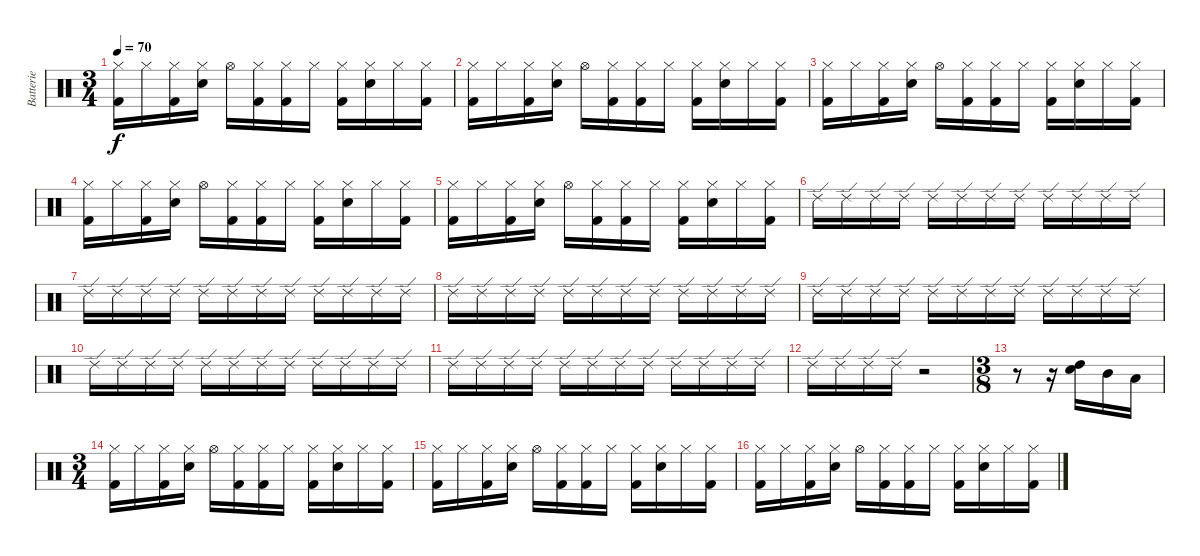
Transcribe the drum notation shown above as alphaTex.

\track ("Batterie" "Batterie") {instrument percussion}
\staff {score}
\articulation defaults
\ts (3 4)
\tempo 70
\clef neutral
\ks c
("Kick (hit) 2" "Hi-Hat (closed)").16{dy f} "Hi-Hat (closed)".16 ("Kick (hit) 2" "Hi-Hat (closed)").16 ("Electric Snare (hit)" "Hi-Hat (closed)").16 "Hi-Hat (open)".16 ("Kick (hit) 2" "Hi-Hat (closed)").16 ("Kick (hit) 2" "Hi-Hat (closed)").16 "Hi-Hat (closed)".16 ("Kick (hit) 2" "Hi-Hat (closed)").16 ("Electric Snare (hit)" "Hi-Hat (closed)").16 "Hi-Hat (closed)".16 ("Kick (hit) 2" "Hi-Hat (closed)").16 |
("Kick (hit) 2" "Hi-Hat (closed)").16 "Hi-Hat (closed)".16 ("Kick (hit) 2" "Hi-Hat (closed)").16 ("Electric Snare (hit)" "Hi-Hat (closed)").16 "Hi-Hat (open)".16 ("Kick (hit) 2" "Hi-Hat (closed)").16 ("Kick (hit) 2" "Hi-Hat (closed)").16 "Hi-Hat (closed)".16 ("Kick (hit) 2" "Hi-Hat (closed)").16 ("Electric Snare (hit)" "Hi-Hat (closed)").16 "Hi-Hat (closed)".16 ("Kick (hit) 2" "Hi-Hat (closed)").16 |
("Kick (hit) 2" "Hi-Hat (closed)").16 "Hi-Hat (closed)".16 ("Kick (hit) 2" "Hi-Hat (closed)").16 ("Electric Snare (hit)" "Hi-Hat (closed)").16 "Hi-Hat (open)".16 ("Kick (hit) 2" "Hi-Hat (closed)").16 ("Kick (hit) 2" "Hi-Hat (closed)").16 "Hi-Hat (closed)".16 ("Kick (hit) 2" "Hi-Hat (closed)").16 ("Electric Snare (hit)" "Hi-Hat (closed)").16 "Hi-Hat (closed)".16 ("Kick (hit) 2" "Hi-Hat (closed)").16 |
("Kick (hit) 2" "Hi-Hat (closed)").16 "Hi-Hat (closed)".16 ("Kick (hit) 2" "Hi-Hat (closed)").16 ("Electric Snare (hit)" "Hi-Hat (closed)").16 "Hi-Hat (open)".16 ("Kick (hit) 2" "Hi-Hat (closed)").16 ("Kick (hit) 2" "Hi-Hat (closed)").16 "Hi-Hat (closed)".16 ("Kick (hit) 2" "Hi-Hat (closed)").16 ("Electric Snare (hit)" "Hi-Hat (closed)").16 "Hi-Hat (closed)".16 ("Kick (hit) 2" "Hi-Hat (closed)").16 |
("Kick (hit) 2" "Hi-Hat (closed)").16 "Hi-Hat (closed)".16 ("Kick (hit) 2" "Hi-Hat (closed)").16 ("Electric Snare (hit)" "Hi-Hat (closed)").16 "Hi-Hat (open)".16 ("Kick (hit) 2" "Hi-Hat (closed)").16 ("Kick (hit) 2" "Hi-Hat (closed)").16 "Hi-Hat (closed)".16 ("Kick (hit) 2" "Hi-Hat (closed)").16 ("Electric Snare (hit)" "Hi-Hat (closed)").16 "Hi-Hat (closed)".16 ("Kick (hit) 2" "Hi-Hat (closed)").16 |
"Ride (edge) 2".16{volume 6} "Ride (edge) 2".16 "Ride (edge) 2".16 "Ride (edge) 2".16 "Ride (edge) 2".16 "Ride (edge) 2".16 "Ride (edge) 2".16 "Ride (edge) 2".16 "Ride (edge) 2".16 "Ride (edge) 2".16 "Ride (edge) 2".16 "Ride (edge) 2".16 |
"Ride (edge) 2".16 "Ride (edge) 2".16 "Ride (edge) 2".16 "Ride (edge) 2".16 "Ride (edge) 2".16 "Ride (edge) 2".16 "Ride (edge) 2".16 "Ride (edge) 2".16 "Ride (edge) 2".16 "Ride (edge) 2".16 "Ride (edge) 2".16 "Ride (edge) 2".16 |
"Ride (edge) 2".16 "Ride (edge) 2".16 "Ride (edge) 2".16 "Ride (edge) 2".16 "Ride (edge) 2".16 "Ride (edge) 2".16 "Ride (edge) 2".16 "Ride (edge) 2".16 "Ride (edge) 2".16 "Ride (edge) 2".16 "Ride (edge) 2".16 "Ride (edge) 2".16 |
"Ride (edge) 2".16 "Ride (edge) 2".16 "Ride (edge) 2".16 "Ride (edge) 2".16 "Ride (edge) 2".16 "Ride (edge) 2".16 "Ride (edge) 2".16 "Ride (edge) 2".16 "Ride (edge) 2".16 "Ride (edge) 2".16 "Ride (edge) 2".16 "Ride (edge) 2".16 |
"Ride (edge) 2".16 "Ride (edge) 2".16 "Ride (edge) 2".16 "Ride (edge) 2".16 "Ride (edge) 2".16 "Ride (edge) 2".16 "Ride (edge) 2".16 "Ride (edge) 2".16 "Ride (edge) 2".16 "Ride (edge) 2".16 "Ride (edge) 2".16 "Ride (edge) 2".16 |
"Ride (edge) 2".16 "Ride (edge) 2".16 "Ride (edge) 2".16 "Ride (edge) 2".16 "Ride (edge) 2".16 "Ride (edge) 2".16 "Ride (edge) 2".16 "Ride (edge) 2".16 "Ride (edge) 2".16 "Ride (edge) 2".16 "Ride (edge) 2".16 "Ride (edge) 2".16 |
"Ride (edge) 2".16 "Ride (edge) 2".16 "Ride (edge) 2".16 "Ride (edge) 2".16 r.2 |
\ts (3 8)
r.8{volume 13} r.16 ("High Tom (hit)" "Electric Snare (hit)").16 "Mid Tom (hit)".16 "Low Tom (hit)".16 |
\ts (3 4)
("Kick (hit) 2" "Hi-Hat (closed)").16 "Hi-Hat (closed)".16 ("Kick (hit) 2" "Hi-Hat (closed)").16 ("Electric Snare (hit)" "Hi-Hat (closed)").16 "Hi-Hat (open)".16 ("Kick (hit) 2" "Hi-Hat (closed)").16 ("Kick (hit) 2" "Hi-Hat (closed)").16 "Hi-Hat (closed)".16 ("Kick (hit) 2" "Hi-Hat (closed)").16 ("Electric Snare (hit)" "Hi-Hat (closed)").16 "Hi-Hat (closed)".16 ("Kick (hit) 2" "Hi-Hat (closed)").16 |
("Kick (hit) 2" "Hi-Hat (closed)").16 "Hi-Hat (closed)".16 ("Kick (hit) 2" "Hi-Hat (closed)").16 ("Electric Snare (hit)" "Hi-Hat (closed)").16 "Hi-Hat (open)".16 ("Kick (hit) 2" "Hi-Hat (closed)").16 ("Kick (hit) 2" "Hi-Hat (closed)").16 "Hi-Hat (closed)".16 ("Kick (hit) 2" "Hi-Hat (closed)").16 ("Electric Snare (hit)" "Hi-Hat (closed)").16 "Hi-Hat (closed)".16 ("Kick (hit) 2" "Hi-Hat (closed)").16 |
("Kick (hit) 2" "Hi-Hat (closed)").16 "Hi-Hat (closed)".16 ("Kick (hit) 2" "Hi-Hat (closed)").16 ("Electric Snare (hit)" "Hi-Hat (closed)").16 "Hi-Hat (open)".16 ("Kick (hit) 2" "Hi-Hat (closed)").16 ("Kick (hit) 2" "Hi-Hat (closed)").16 "Hi-Hat (closed)".16 ("Kick (hit) 2" "Hi-Hat (closed)").16 ("Electric Snare (hit)" "Hi-Hat (closed)").16 "Hi-Hat (closed)".16 ("Kick (hit) 2" "Hi-Hat (closed)").16
